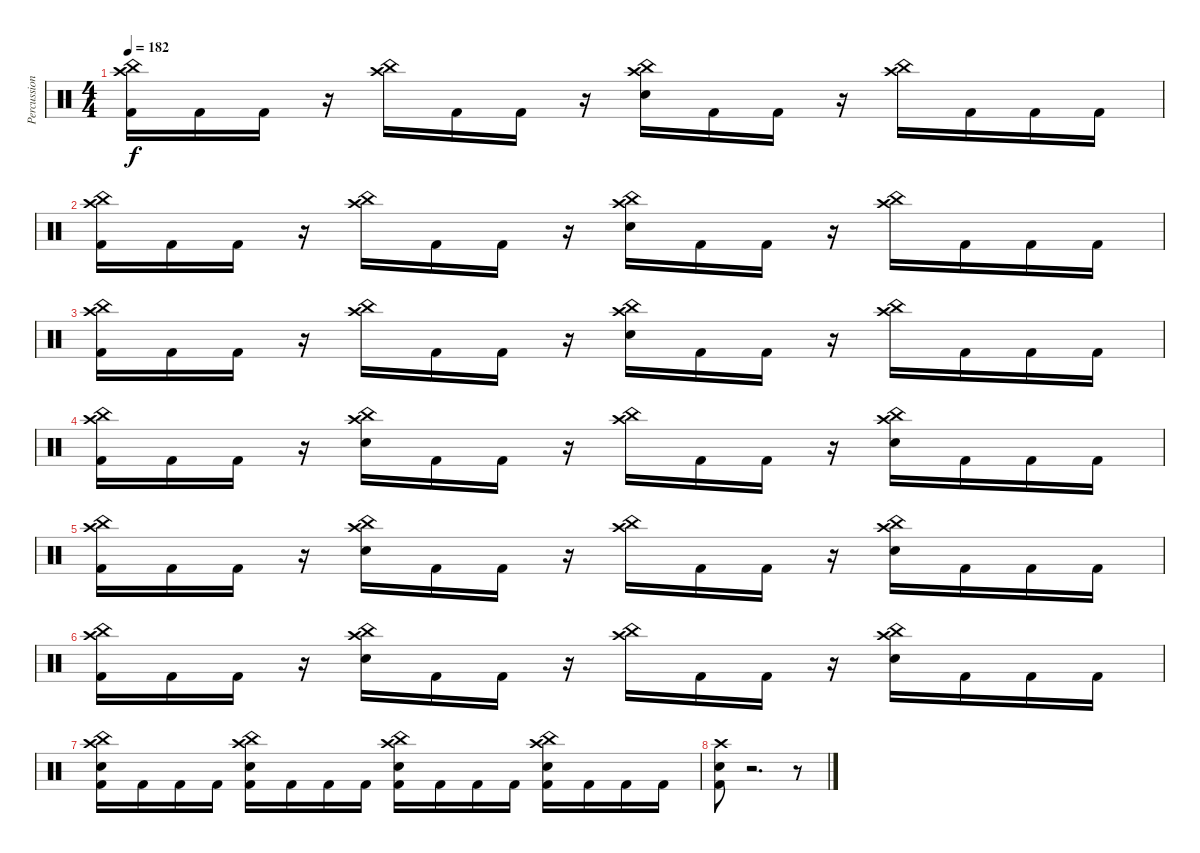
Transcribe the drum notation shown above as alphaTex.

\track ("Percussion" "Percussion") {instrument percussion}
\staff {score}
\articulation defaults
\ts (4 4)
\tempo 182
\clef neutral
\ks c
("China (hit)" "Crash high (hit)" "Kick (hit) 2").16{dy f} "Kick (hit) 2".16 "Kick (hit) 2".16 r.16 ("China (hit)" "Crash high (hit)").16 "Kick (hit) 2".16 "Kick (hit) 2".16 r.16 ("China (hit)" "Crash high (hit)" "Electric Snare (hit)").16 "Kick (hit) 2".16 "Kick (hit) 2".16 r.16 ("China (hit)" "Crash high (hit)").16 "Kick (hit) 2".16 "Kick (hit) 2".16 "Kick (hit) 2".16 |
("China (hit)" "Crash high (hit)" "Kick (hit) 2").16 "Kick (hit) 2".16 "Kick (hit) 2".16 r.16 ("China (hit)" "Crash high (hit)").16 "Kick (hit) 2".16 "Kick (hit) 2".16 r.16 ("China (hit)" "Crash high (hit)" "Electric Snare (hit)").16 "Kick (hit) 2".16 "Kick (hit) 2".16 r.16 ("China (hit)" "Crash high (hit)").16 "Kick (hit) 2".16 "Kick (hit) 2".16 "Kick (hit) 2".16 |
("China (hit)" "Crash high (hit)" "Kick (hit) 2").16 "Kick (hit) 2".16 "Kick (hit) 2".16 r.16 ("China (hit)" "Crash high (hit)").16 "Kick (hit) 2".16 "Kick (hit) 2".16 r.16 ("China (hit)" "Crash high (hit)" "Electric Snare (hit)").16 "Kick (hit) 2".16 "Kick (hit) 2".16 r.16 ("China (hit)" "Crash high (hit)").16 "Kick (hit) 2".16 "Kick (hit) 2".16 "Kick (hit) 2".16 |
("China (hit)" "Crash high (hit)" "Kick (hit) 2").16 "Kick (hit) 2".16 "Kick (hit) 2".16 r.16 ("China (hit)" "Crash high (hit)" "Electric Snare (hit)").16 "Kick (hit) 2".16 "Kick (hit) 2".16 r.16 ("China (hit)" "Crash high (hit)").16 "Kick (hit) 2".16 "Kick (hit) 2".16 r.16 ("China (hit)" "Crash high (hit)" "Electric Snare (hit)").16 "Kick (hit) 2".16 "Kick (hit) 2".16 "Kick (hit) 2".16 |
("China (hit)" "Crash high (hit)" "Kick (hit) 2").16 "Kick (hit) 2".16 "Kick (hit) 2".16 r.16 ("China (hit)" "Crash high (hit)" "Electric Snare (hit)").16 "Kick (hit) 2".16 "Kick (hit) 2".16 r.16 ("China (hit)" "Crash high (hit)").16 "Kick (hit) 2".16 "Kick (hit) 2".16 r.16 ("China (hit)" "Crash high (hit)" "Electric Snare (hit)").16 "Kick (hit) 2".16 "Kick (hit) 2".16 "Kick (hit) 2".16 |
("China (hit)" "Crash high (hit)" "Kick (hit) 2").16 "Kick (hit) 2".16 "Kick (hit) 2".16 r.16 ("China (hit)" "Crash high (hit)" "Electric Snare (hit)").16 "Kick (hit) 2".16 "Kick (hit) 2".16 r.16 ("China (hit)" "Crash high (hit)").16 "Kick (hit) 2".16 "Kick (hit) 2".16 r.16 ("China (hit)" "Crash high (hit)" "Electric Snare (hit)").16 "Kick (hit) 2".16 "Kick (hit) 2".16 "Kick (hit) 2".16 |
("China (hit)" "Crash high (hit)" "Electric Snare (hit)" "Kick (hit) 2").16 "Kick (hit) 2".16 "Kick (hit) 2".16 "Kick (hit) 2".16 ("China (hit)" "Crash high (hit)" "Electric Snare (hit)" "Kick (hit) 2").16 "Kick (hit) 2".16 "Kick (hit) 2".16 "Kick (hit) 2".16 ("China (hit)" "Crash high (hit)" "Electric Snare (hit)" "Kick (hit) 2").16 "Kick (hit) 2".16 "Kick (hit) 2".16 "Kick (hit) 2".16 ("China (hit)" "Crash high (hit)" "Electric Snare (hit)" "Kick (hit) 2").16 "Kick (hit) 2".16 "Kick (hit) 2".16 "Kick (hit) 2".16 |
("Crash high (hit)" "Electric Snare (hit)" "Kick (hit) 2").8 r.2{d} r.8
